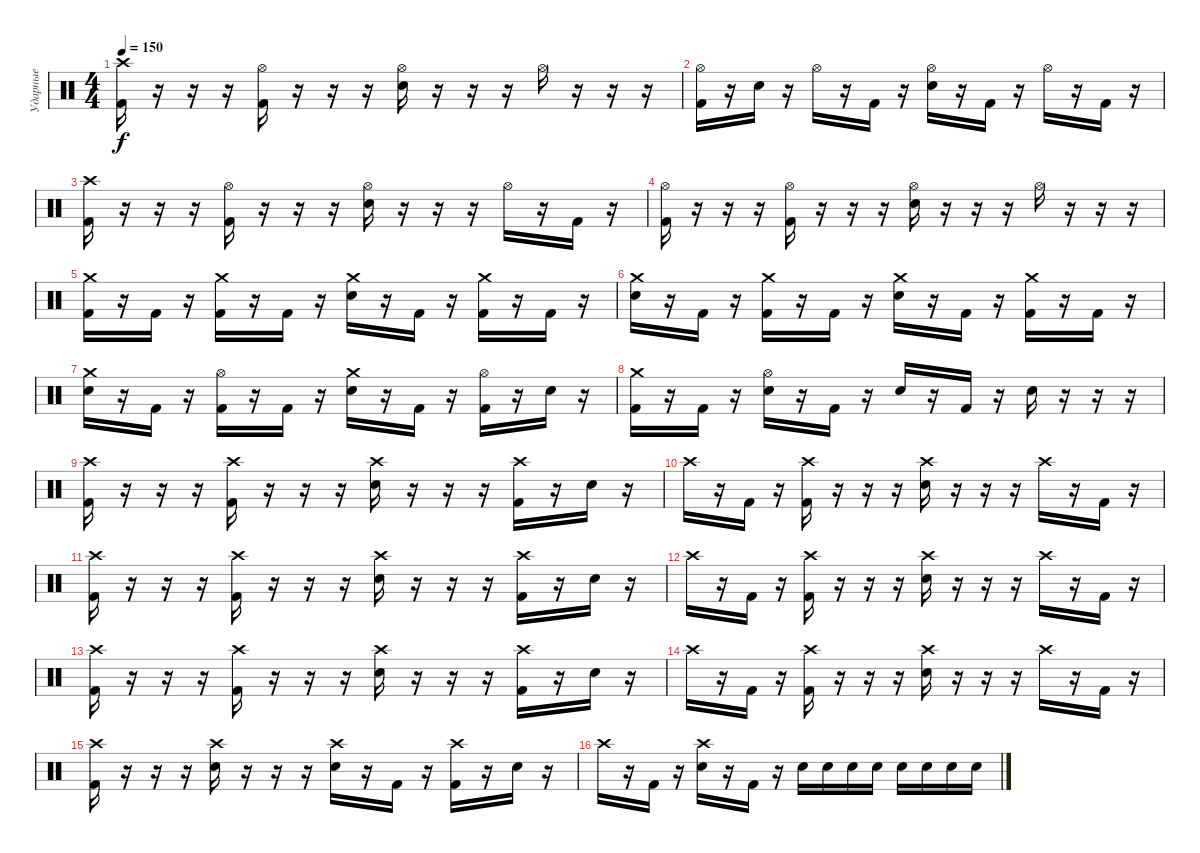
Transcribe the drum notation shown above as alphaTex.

\track ("Ударные" "Ударные") {instrument percussion}
\staff {score}
\articulation defaults
\ts (4 4)
\tempo 150
\clef neutral
\ks c
("Crash high (hit)" "Kick (hit) 2").16{dy f} r.16 r.16 r.16 ("Hi-Hat (open)" "Kick (hit) 2").16 r.16 r.16 r.16 ("Hi-Hat (open)" "Electric Snare (hit)").16 r.16 r.16 r.16 "Hi-Hat (open)".16 r.16 r.16 r.16 |
("Hi-Hat (open)" "Kick (hit) 2").16 r.16 "Electric Snare (hit)".16 r.16 "Hi-Hat (open)".16 r.16 "Kick (hit) 2".16 r.16 ("Hi-Hat (open)" "Electric Snare (hit)").16 r.16 "Kick (hit) 2".16 r.16 "Hi-Hat (open)".16 r.16 "Kick (hit) 2".16 r.16 |
("Crash high (hit)" "Kick (hit) 2").16 r.16 r.16 r.16 ("Hi-Hat (open)" "Kick (hit) 2").16 r.16 r.16 r.16 ("Hi-Hat (open)" "Electric Snare (hit)").16 r.16 r.16 r.16 "Hi-Hat (open)".16 r.16 "Kick (hit) 2".16 r.16 |
("Hi-Hat (open)" "Kick (hit) 2").16 r.16 r.16 r.16 ("Hi-Hat (open)" "Kick (hit) 2").16 r.16 r.16 r.16 ("Hi-Hat (open)" "Electric Snare (hit)").16 r.16 r.16 r.16 "Hi-Hat (open)".16 r.16 r.16 r.16 |
("Crash medium (hit)" "Kick (hit) 2").16 r.16 "Kick (hit) 2".16 r.16 ("Crash medium (hit)" "Kick (hit) 2").16 r.16 "Kick (hit) 2".16 r.16 ("Crash medium (hit)" "Electric Snare (hit)").16 r.16 "Kick (hit) 2".16 r.16 ("Crash medium (hit)" "Kick (hit) 2").16 r.16 "Kick (hit) 2".16 r.16 |
("Crash medium (hit)" "Electric Snare (hit)").16 r.16 "Kick (hit) 2".16 r.16 ("Crash medium (hit)" "Kick (hit) 2").16 r.16 "Kick (hit) 2".16 r.16 ("Crash medium (hit)" "Electric Snare (hit)").16 r.16 "Kick (hit) 2".16 r.16 ("Crash medium (hit)" "Kick (hit) 2").16 r.16 "Kick (hit) 2".16 r.16 |
("Crash medium (hit)" "Electric Snare (hit)").16 r.16 "Kick (hit) 2".16 r.16 ("Hi-Hat (open)" "Kick (hit) 2").16 r.16 "Kick (hit) 2".16 r.16 ("Crash medium (hit)" "Electric Snare (hit)").16 r.16 "Kick (hit) 2".16 r.16 ("Hi-Hat (open)" "Kick (hit) 2").16 r.16 "Electric Snare (hit)".16 r.16 |
("Crash medium (hit)" "Kick (hit) 2").16 r.16 "Kick (hit) 2".16 r.16 ("Hi-Hat (open)" "Electric Snare (hit)").16 r.16 "Kick (hit) 2".16 r.16 "Electric Snare (hit)".16 r.16 "Kick (hit) 2".16 r.16 "Electric Snare (hit)".16 r.16 r.16 r.16 |
("Crash high (hit)" "Kick (hit) 2").16 r.16 r.16 r.16 ("Crash high (hit)" "Kick (hit) 2").16 r.16 r.16 r.16 ("Crash high (hit)" "Electric Snare (hit)").16 r.16 r.16 r.16 ("Crash high (hit)" "Kick (hit) 2").16 r.16 "Electric Snare (hit)".16 r.16 |
"Crash high (hit)".16 r.16 "Kick (hit) 2".16 r.16 ("Crash high (hit)" "Kick (hit) 2").16 r.16 r.16 r.16 ("Crash high (hit)" "Electric Snare (hit)").16 r.16 r.16 r.16 "Crash high (hit)".16 r.16 "Kick (hit) 2".16 r.16 |
("Crash high (hit)" "Kick (hit) 2").16 r.16 r.16 r.16 ("Crash high (hit)" "Kick (hit) 2").16 r.16 r.16 r.16 ("Crash high (hit)" "Electric Snare (hit)").16 r.16 r.16 r.16 ("Crash high (hit)" "Kick (hit) 2").16 r.16 "Electric Snare (hit)".16 r.16 |
"Crash high (hit)".16 r.16 "Kick (hit) 2".16 r.16 ("Crash high (hit)" "Kick (hit) 2").16 r.16 r.16 r.16 ("Crash high (hit)" "Electric Snare (hit)").16 r.16 r.16 r.16 "Crash high (hit)".16 r.16 "Kick (hit) 2".16 r.16 |
("Crash high (hit)" "Kick (hit) 2").16 r.16 r.16 r.16 ("Crash high (hit)" "Kick (hit) 2").16 r.16 r.16 r.16 ("Crash high (hit)" "Electric Snare (hit)").16 r.16 r.16 r.16 ("Crash high (hit)" "Kick (hit) 2").16 r.16 "Electric Snare (hit)".16 r.16 |
"Crash high (hit)".16 r.16 "Kick (hit) 2".16 r.16 ("Crash high (hit)" "Kick (hit) 2").16 r.16 r.16 r.16 ("Crash high (hit)" "Electric Snare (hit)").16 r.16 r.16 r.16 "Crash high (hit)".16 r.16 "Kick (hit) 2".16 r.16 |
("Crash high (hit)" "Kick (hit) 2").16 r.16 r.16 r.16 ("Crash high (hit)" "Electric Snare (hit)").16 r.16 r.16 r.16 ("Crash high (hit)" "Electric Snare (hit)").16 r.16 "Kick (hit) 2".16 r.16 ("Crash high (hit)" "Kick (hit) 2").16 r.16 "Electric Snare (hit)".16 r.16 |
"Crash high (hit)".16 r.16 "Kick (hit) 2".16 r.16 ("Crash high (hit)" "Electric Snare (hit)").16 r.16 "Kick (hit) 2".16 r.16 "Electric Snare (hit)".16 "Electric Snare (hit)".16 "Electric Snare (hit)".16 "Electric Snare (hit)".16 "Electric Snare (hit)".16 "Electric Snare (hit)".16 "Electric Snare (hit)".16 "Electric Snare (hit)".16
